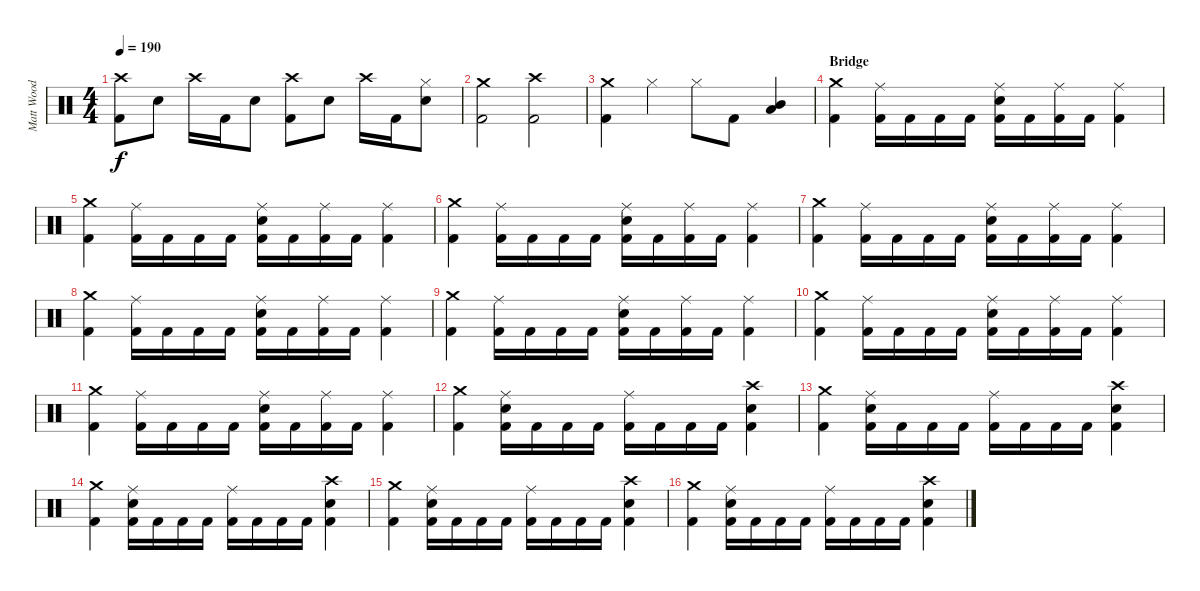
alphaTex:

\track ("Matt Wood" "Matt Wood") {instrument percussion}
\staff {score}
\articulation defaults
\ts (4 4)
\tempo 190
\clef neutral
\ks c
("Crash high (hit)" "Kick (hit) 2").8{dy f} "Snare (hit) 2".8 "Crash high (hit)".16 "Kick (hit) 2".16 "Snare (hit) 2".8 ("Crash high (hit)" "Kick (hit) 2").8 "Snare (hit) 2".8 "Crash high (hit)".16 "Kick (hit) 2".16 ("Hi-Hat (closed)" "Snare (hit) 2").8 |
("Crash medium (hit)" "Kick (hit) 2").2 ("Crash high (hit)" "Kick (hit) 2").2 |
("Crash medium (hit)" "Kick (hit) 2").4 "Hi-Hat (closed)".4 "Hi-Hat (closed)".8 "Kick (hit) 2".8 ("Mid Tom (hit)" "Low Tom (hit)").4 |
\section ("" "Bridge")
("Crash medium (hit)" "Kick (hit) 2").4 ("Ride (middle)" "Kick (hit) 2").16 "Kick (hit) 2".16 "Kick (hit) 2".16 "Kick (hit) 2".16 ("Ride (middle)" "Snare (hit) 2" "Kick (hit) 2").16 "Kick (hit) 2".16 ("Ride (middle)" "Kick (hit) 2").16 "Kick (hit) 2".16 ("Ride (middle)" "Kick (hit) 2").4 |
("Crash medium (hit)" "Kick (hit) 2").4 ("Ride (middle)" "Kick (hit) 2").16 "Kick (hit) 2".16 "Kick (hit) 2".16 "Kick (hit) 2".16 ("Ride (middle)" "Snare (hit) 2" "Kick (hit) 2").16 "Kick (hit) 2".16 ("Ride (middle)" "Kick (hit) 2").16 "Kick (hit) 2".16 ("Ride (middle)" "Kick (hit) 2").4 |
("Crash medium (hit)" "Kick (hit) 2").4 ("Ride (middle)" "Kick (hit) 2").16 "Kick (hit) 2".16 "Kick (hit) 2".16 "Kick (hit) 2".16 ("Ride (middle)" "Snare (hit) 2" "Kick (hit) 2").16 "Kick (hit) 2".16 ("Ride (middle)" "Kick (hit) 2").16 "Kick (hit) 2".16 ("Ride (middle)" "Kick (hit) 2").4 |
("Crash medium (hit)" "Kick (hit) 2").4 ("Ride (middle)" "Kick (hit) 2").16 "Kick (hit) 2".16 "Kick (hit) 2".16 "Kick (hit) 2".16 ("Ride (middle)" "Snare (hit) 2" "Kick (hit) 2").16 "Kick (hit) 2".16 ("Ride (middle)" "Kick (hit) 2").16 "Kick (hit) 2".16 ("Ride (middle)" "Kick (hit) 2").4 |
("Crash medium (hit)" "Kick (hit) 2").4 ("Ride (middle)" "Kick (hit) 2").16 "Kick (hit) 2".16 "Kick (hit) 2".16 "Kick (hit) 2".16 ("Ride (middle)" "Snare (hit) 2" "Kick (hit) 2").16 "Kick (hit) 2".16 ("Ride (middle)" "Kick (hit) 2").16 "Kick (hit) 2".16 ("Ride (middle)" "Kick (hit) 2").4 |
("Crash medium (hit)" "Kick (hit) 2").4 ("Ride (middle)" "Kick (hit) 2").16 "Kick (hit) 2".16 "Kick (hit) 2".16 "Kick (hit) 2".16 ("Ride (middle)" "Snare (hit) 2" "Kick (hit) 2").16 "Kick (hit) 2".16 ("Ride (middle)" "Kick (hit) 2").16 "Kick (hit) 2".16 ("Ride (middle)" "Kick (hit) 2").4 |
("Crash medium (hit)" "Kick (hit) 2").4 ("Ride (middle)" "Kick (hit) 2").16 "Kick (hit) 2".16 "Kick (hit) 2".16 "Kick (hit) 2".16 ("Ride (middle)" "Snare (hit) 2" "Kick (hit) 2").16 "Kick (hit) 2".16 ("Ride (middle)" "Kick (hit) 2").16 "Kick (hit) 2".16 ("Ride (middle)" "Kick (hit) 2").4 |
("Crash medium (hit)" "Kick (hit) 2").4 ("Ride (middle)" "Kick (hit) 2").16 "Kick (hit) 2".16 "Kick (hit) 2".16 "Kick (hit) 2".16 ("Ride (middle)" "Snare (hit) 2" "Kick (hit) 2").16 "Kick (hit) 2".16 ("Ride (middle)" "Kick (hit) 2").16 "Kick (hit) 2".16 ("Ride (middle)" "Kick (hit) 2").4 |
("Crash medium (hit)" "Kick (hit) 2").4 ("Ride (middle)" "Snare (hit) 2" "Kick (hit) 2").16 "Kick (hit) 2".16 "Kick (hit) 2".16 "Kick (hit) 2".16 ("Ride (middle)" "Kick (hit) 2").16 "Kick (hit) 2".16 "Kick (hit) 2".16 "Kick (hit) 2".16 ("Crash high (hit)" "Snare (hit) 2" "Kick (hit) 2").4 |
("Crash medium (hit)" "Kick (hit) 2").4 ("Ride (middle)" "Snare (hit) 2" "Kick (hit) 2").16 "Kick (hit) 2".16 "Kick (hit) 2".16 "Kick (hit) 2".16 ("Ride (middle)" "Kick (hit) 2").16 "Kick (hit) 2".16 "Kick (hit) 2".16 "Kick (hit) 2".16 ("Crash high (hit)" "Snare (hit) 2" "Kick (hit) 2").4 |
("Crash medium (hit)" "Kick (hit) 2").4 ("Ride (middle)" "Snare (hit) 2" "Kick (hit) 2").16 "Kick (hit) 2".16 "Kick (hit) 2".16 "Kick (hit) 2".16 ("Ride (middle)" "Kick (hit) 2").16 "Kick (hit) 2".16 "Kick (hit) 2".16 "Kick (hit) 2".16 ("Crash high (hit)" "Snare (hit) 2" "Kick (hit) 2").4 |
("Crash medium (hit)" "Kick (hit) 2").4 ("Ride (middle)" "Snare (hit) 2" "Kick (hit) 2").16 "Kick (hit) 2".16 "Kick (hit) 2".16 "Kick (hit) 2".16 ("Ride (middle)" "Kick (hit) 2").16 "Kick (hit) 2".16 "Kick (hit) 2".16 "Kick (hit) 2".16 ("Crash high (hit)" "Snare (hit) 2" "Kick (hit) 2").4 |
("Crash medium (hit)" "Kick (hit) 2").4 ("Ride (middle)" "Snare (hit) 2" "Kick (hit) 2").16 "Kick (hit) 2".16 "Kick (hit) 2".16 "Kick (hit) 2".16 ("Ride (middle)" "Kick (hit) 2").16 "Kick (hit) 2".16 "Kick (hit) 2".16 "Kick (hit) 2".16 ("Crash high (hit)" "Snare (hit) 2" "Kick (hit) 2").4
